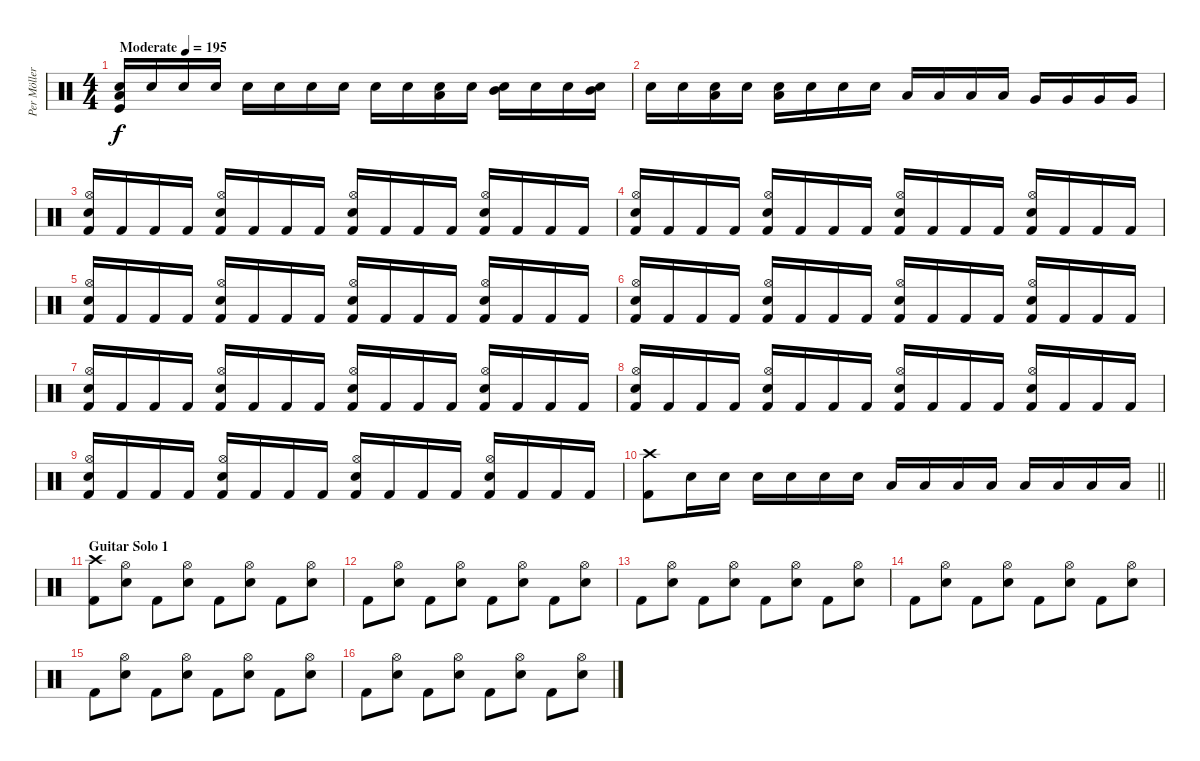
\track ("Per Möller Jensen" "Per Möller") {instrument percussion}
\staff {score}
\articulation defaults
\ts (4 4)
\tempo (195 "Moderate")
\clef neutral
\ks c
("Low Floor Tom (hit)" "Snare (hit) 2" "Kick (hit)").16{dy f} "Snare (hit) 2".16 "Snare (hit) 2".16 "Snare (hit) 2".16 "Snare (hit) 2".16 "Snare (hit) 2".16 "Snare (hit) 2".16 "Snare (hit) 2".16 "Electric Snare (hit)".16 "Snare (hit) 2".16 ("Low Floor Tom (hit)" "Snare (hit) 2").16 "Snare (hit) 2".16 ("Mid Tom (hit)" "Snare (hit) 2").16 "Snare (hit) 2".16 "Snare (hit) 2".16 ("Mid Tom (hit)" "Snare (hit) 2").16 |
"Snare (hit) 2".16 "Snare (hit) 2".16 ("Low Tom (hit)" "Snare (hit) 2").16 "Snare (hit) 2".16 ("Low Floor Tom (hit)" "Snare (hit) 2").16 "Snare (hit) 2".16 "Snare (hit) 2".16 "Snare (hit) 2".16 "Low Tom (hit)".16 "Low Tom (hit)".16 "Low Tom (hit)".16 "Low Tom (hit)".16 "Very Low Tom (hit)".16 "Very Low Tom (hit)".16 "Very Low Tom (hit)".16 "Very Low Tom (hit)".16 |
("Hi-Hat (open)" "Snare (hit) 2" "Kick (hit) 2").16 "Kick (hit) 2".16 "Kick (hit) 2".16 "Kick (hit) 2".16 ("Hi-Hat (open)" "Snare (hit) 2" "Kick (hit) 2").16 "Kick (hit) 2".16 "Kick (hit) 2".16 "Kick (hit) 2".16 ("Hi-Hat (open)" "Snare (hit) 2" "Kick (hit) 2").16 "Kick (hit) 2".16 "Kick (hit) 2".16 "Kick (hit) 2".16 ("Hi-Hat (open)" "Snare (hit) 2" "Kick (hit) 2").16 "Kick (hit) 2".16 "Kick (hit) 2".16 "Kick (hit) 2".16 |
("Hi-Hat (open)" "Snare (hit) 2" "Kick (hit) 2").16 "Kick (hit) 2".16 "Kick (hit) 2".16 "Kick (hit) 2".16 ("Hi-Hat (open)" "Snare (hit) 2" "Kick (hit) 2").16 "Kick (hit) 2".16 "Kick (hit) 2".16 "Kick (hit) 2".16 ("Hi-Hat (open)" "Snare (hit) 2" "Kick (hit) 2").16 "Kick (hit) 2".16 "Kick (hit) 2".16 "Kick (hit) 2".16 ("Hi-Hat (open)" "Snare (hit) 2" "Kick (hit) 2").16 "Kick (hit) 2".16 "Kick (hit) 2".16 "Kick (hit) 2".16 |
("Hi-Hat (open)" "Snare (hit) 2" "Kick (hit) 2").16 "Kick (hit) 2".16 "Kick (hit) 2".16 "Kick (hit) 2".16 ("Hi-Hat (open)" "Snare (hit) 2" "Kick (hit) 2").16 "Kick (hit) 2".16 "Kick (hit) 2".16 "Kick (hit) 2".16 ("Hi-Hat (open)" "Snare (hit) 2" "Kick (hit) 2").16 "Kick (hit) 2".16 "Kick (hit) 2".16 "Kick (hit) 2".16 ("Hi-Hat (open)" "Snare (hit) 2" "Kick (hit) 2").16 "Kick (hit) 2".16 "Kick (hit) 2".16 "Kick (hit) 2".16 |
("Hi-Hat (open)" "Snare (hit) 2" "Kick (hit) 2").16 "Kick (hit) 2".16 "Kick (hit) 2".16 "Kick (hit) 2".16 ("Hi-Hat (open)" "Snare (hit) 2" "Kick (hit) 2").16 "Kick (hit) 2".16 "Kick (hit) 2".16 "Kick (hit) 2".16 ("Hi-Hat (open)" "Snare (hit) 2" "Kick (hit) 2").16 "Kick (hit) 2".16 "Kick (hit) 2".16 "Kick (hit) 2".16 ("Hi-Hat (open)" "Snare (hit) 2" "Kick (hit) 2").16 "Kick (hit) 2".16 "Kick (hit) 2".16 "Kick (hit) 2".16 |
("Hi-Hat (open)" "Snare (hit) 2" "Kick (hit) 2").16 "Kick (hit) 2".16 "Kick (hit) 2".16 "Kick (hit) 2".16 ("Hi-Hat (open)" "Snare (hit) 2" "Kick (hit) 2").16 "Kick (hit) 2".16 "Kick (hit) 2".16 "Kick (hit) 2".16 ("Hi-Hat (open)" "Snare (hit) 2" "Kick (hit) 2").16 "Kick (hit) 2".16 "Kick (hit) 2".16 "Kick (hit) 2".16 ("Hi-Hat (open)" "Snare (hit) 2" "Kick (hit) 2").16 "Kick (hit) 2".16 "Kick (hit) 2".16 "Kick (hit) 2".16 |
("Hi-Hat (open)" "Snare (hit) 2" "Kick (hit) 2").16 "Kick (hit) 2".16 "Kick (hit) 2".16 "Kick (hit) 2".16 ("Hi-Hat (open)" "Snare (hit) 2" "Kick (hit) 2").16 "Kick (hit) 2".16 "Kick (hit) 2".16 "Kick (hit) 2".16 ("Hi-Hat (open)" "Snare (hit) 2" "Kick (hit) 2").16 "Kick (hit) 2".16 "Kick (hit) 2".16 "Kick (hit) 2".16 ("Hi-Hat (open)" "Snare (hit) 2" "Kick (hit) 2").16 "Kick (hit) 2".16 "Kick (hit) 2".16 "Kick (hit) 2".16 |
("Hi-Hat (open)" "Snare (hit) 2" "Kick (hit) 2").16 "Kick (hit) 2".16 "Kick (hit) 2".16 "Kick (hit) 2".16 ("Hi-Hat (open)" "Snare (hit) 2" "Kick (hit) 2").16 "Kick (hit) 2".16 "Kick (hit) 2".16 "Kick (hit) 2".16 ("Hi-Hat (open)" "Snare (hit) 2" "Kick (hit) 2").16 "Kick (hit) 2".16 "Kick (hit) 2".16 "Kick (hit) 2".16 ("Hi-Hat (open)" "Snare (hit) 2" "Kick (hit) 2").16 "Kick (hit) 2".16 "Kick (hit) 2".16 "Kick (hit) 2".16 |
\barLineRight lightlight
("Crash high (hit)" "Kick (hit) 2").8 "Snare (hit) 2".16 "Snare (hit) 2".16 "Snare (hit) 2".16 "Snare (hit) 2".16 "Snare (hit) 2".16 "Snare (hit) 2".16 "Low Tom (hit)".16 "Low Tom (hit)".16 "Low Tom (hit)".16 "Low Tom (hit)".16 "Low Floor Tom (hit)".16 "Low Floor Tom (hit)".16 "Low Floor Tom (hit)".16 "Low Floor Tom (hit)".16 |
\section ("" "Guitar Solo 1")
("Crash high (hit)" "Kick (hit) 2").8 ("Hi-Hat (open)" "Snare (hit) 2").8 "Kick (hit) 2".8 ("Hi-Hat (open)" "Snare (hit) 2").8 "Kick (hit) 2".8 ("Hi-Hat (open)" "Snare (hit) 2").8 "Kick (hit) 2".8 ("Hi-Hat (open)" "Snare (hit) 2").8 |
"Kick (hit) 2".8 ("Hi-Hat (open)" "Snare (hit) 2").8 "Kick (hit) 2".8 ("Hi-Hat (open)" "Snare (hit) 2").8 "Kick (hit) 2".8 ("Hi-Hat (open)" "Snare (hit) 2").8 "Kick (hit) 2".8 ("Hi-Hat (open)" "Snare (hit) 2").8 |
"Kick (hit) 2".8 ("Hi-Hat (open)" "Snare (hit) 2").8 "Kick (hit) 2".8 ("Hi-Hat (open)" "Snare (hit) 2").8 "Kick (hit) 2".8 ("Hi-Hat (open)" "Snare (hit) 2").8 "Kick (hit) 2".8 ("Hi-Hat (open)" "Snare (hit) 2").8 |
"Kick (hit) 2".8 ("Hi-Hat (open)" "Snare (hit) 2").8 "Kick (hit) 2".8 ("Hi-Hat (open)" "Snare (hit) 2").8 "Kick (hit) 2".8 ("Hi-Hat (open)" "Snare (hit) 2").8 "Kick (hit) 2".8 ("Hi-Hat (open)" "Snare (hit) 2").8 |
"Kick (hit) 2".8 ("Hi-Hat (open)" "Snare (hit) 2").8 "Kick (hit) 2".8 ("Hi-Hat (open)" "Snare (hit) 2").8 "Kick (hit) 2".8 ("Hi-Hat (open)" "Snare (hit) 2").8 "Kick (hit) 2".8 ("Hi-Hat (open)" "Snare (hit) 2").8 |
"Kick (hit) 2".8 ("Hi-Hat (open)" "Snare (hit) 2").8 "Kick (hit) 2".8 ("Hi-Hat (open)" "Snare (hit) 2").8 "Kick (hit) 2".8 ("Hi-Hat (open)" "Snare (hit) 2").8 "Kick (hit) 2".8 ("Hi-Hat (open)" "Snare (hit) 2").8
